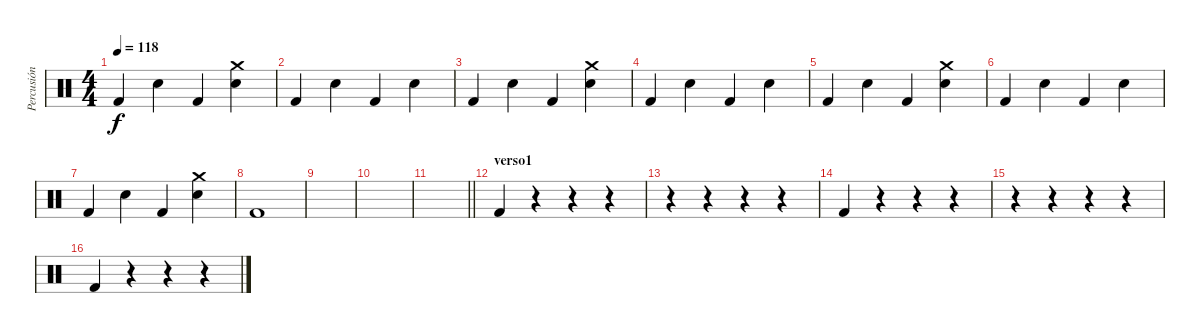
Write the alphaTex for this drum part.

\track ("Percusión" "Percusión") {instrument percussion}
\staff {score}
\articulation defaults
\ts (4 4)
\tempo 118
\clef neutral
\ks c "Kick (hit) 2".4{dy f} "Hand Clap (hit)".4 "Kick (hit) 2".4
("Hand Clap (hit)" "Crash medium (hit)").4 |
"Kick (hit) 2".4 "Hand Clap (hit)".4 "Kick (hit) 2".4 "Hand Clap (hit)".4 |
"Kick (hit) 2".4 "Hand Clap (hit)".4 "Kick (hit) 2".4 ("Hand Clap (hit)" "Crash medium (hit)").4 |
"Kick (hit) 2".4 "Hand Clap (hit)".4 "Kick (hit) 2".4 "Hand Clap (hit)".4 |
"Kick (hit) 2".4 "Hand Clap (hit)".4 "Kick (hit) 2".4 ("Hand Clap (hit)" "Crash medium (hit)").4 |
"Kick (hit) 2".4 "Hand Clap (hit)".4 "Kick (hit) 2".4 "Hand Clap (hit)".4 |
"Kick (hit) 2".4 "Hand Clap (hit)".4 "Kick (hit) 2".4 ("Hand Clap (hit)" "Crash medium (hit)").4 |
"Kick (hit) 2".1 |
|
|
\barLineRight lightlight
|
\section ("" "verso1")
"Kick (hit) 2".4 r.4 r.4 r.4 |
r.4 r.4 r.4 r.4 |
"Kick (hit) 2".4 r.4 r.4 r.4 |
r.4 r.4 r.4 r.4 |
"Kick (hit) 2".4 r.4 r.4 r.4
